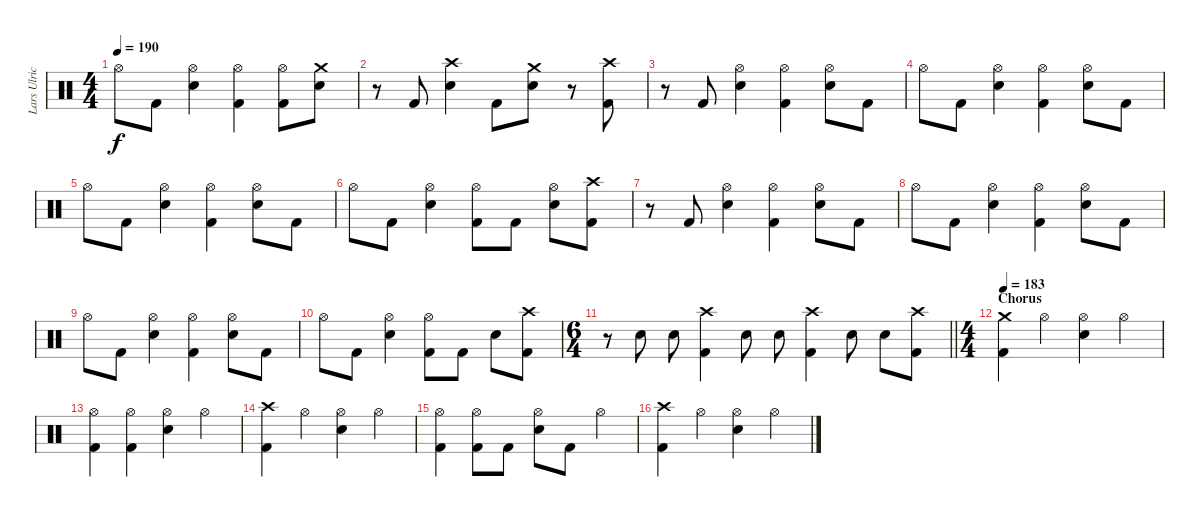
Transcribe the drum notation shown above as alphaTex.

\track ("Lars Ulrich" "Lars Ulric") {instrument percussion}
\staff {score}
\articulation defaults
\ts (4 4)
\tempo 190
\clef neutral
\ks c "Hi-Hat (open)".8{dy f} "Kick (hit) 2".8
("Hi-Hat (open)" "Snare (hit) 2").4 ("Hi-Hat (open)" "Kick (hit) 2").4 ("Hi-Hat (open)" "Kick (hit) 2").8 ("Crash medium (hit)" "Snare (hit) 2").8 |
r.8 "Kick (hit) 2".8 ("Crash high (hit)" "Snare (hit) 2").4 "Kick (hit) 2".8 ("Crash medium (hit)" "Snare (hit) 2").8 r.8 ("Crash high (hit)" "Kick (hit) 2").8 |
r.8 "Kick (hit) 2".8 ("Hi-Hat (open)" "Snare (hit) 2").4 ("Hi-Hat (open)" "Kick (hit) 2").4 ("Hi-Hat (open)" "Snare (hit) 2").8 "Kick (hit) 2".8 |
"Hi-Hat (open)".8 "Kick (hit) 2".8 ("Hi-Hat (open)" "Snare (hit) 2").4 ("Hi-Hat (open)" "Kick (hit) 2").4 ("Hi-Hat (open)" "Snare (hit) 2").8 "Kick (hit) 2".8 |
"Hi-Hat (open)".8 "Kick (hit) 2".8 ("Hi-Hat (open)" "Snare (hit) 2").4 ("Hi-Hat (open)" "Kick (hit) 2").4 ("Hi-Hat (open)" "Snare (hit) 2").8 "Kick (hit) 2".8 |
"Hi-Hat (open)".8 "Kick (hit) 2".8 ("Hi-Hat (open)" "Snare (hit) 2").4 ("Hi-Hat (open)" "Kick (hit) 2").8 "Kick (hit) 2".8 ("Hi-Hat (open)" "Snare (hit) 2").8 ("Crash high (hit)" "Kick (hit) 2").8 |
r.8 "Kick (hit) 2".8 ("Hi-Hat (open)" "Snare (hit) 2").4 ("Hi-Hat (open)" "Kick (hit) 2").4 ("Hi-Hat (open)" "Snare (hit) 2").8 "Kick (hit) 2".8 |
"Hi-Hat (open)".8 "Kick (hit) 2".8 ("Hi-Hat (open)" "Snare (hit) 2").4 ("Hi-Hat (open)" "Kick (hit) 2").4 ("Hi-Hat (open)" "Snare (hit) 2").8 "Kick (hit) 2".8 |
"Hi-Hat (open)".8 "Kick (hit) 2".8 ("Hi-Hat (open)" "Snare (hit) 2").4 ("Hi-Hat (open)" "Kick (hit) 2").4 ("Hi-Hat (open)" "Snare (hit) 2").8 "Kick (hit) 2".8 |
"Hi-Hat (open)".8 "Kick (hit) 2".8 ("Hi-Hat (open)" "Snare (hit) 2").4 ("Hi-Hat (open)" "Kick (hit) 2").8 "Kick (hit) 2".8 "Snare (hit) 2".8 ("Crash high (hit)" "Kick (hit) 2").8 |
\ts (6 4)
\barLineRight lightlight
r.8 "Snare (hit) 2".8 "Snare (hit) 2".8 ("Crash high (hit)" "Kick (hit) 2").4 "Snare (hit) 2".8 "Snare (hit) 2".8 ("Crash high (hit)" "Kick (hit) 2").4 "Snare (hit) 2".8 "Snare (hit) 2".8 ("Crash high (hit)" "Kick (hit) 2").8 |
\ts (4 4)
\section ("" "Chorus")
\tempo 183
("Crash medium (hit)" "Kick (hit) 2").4 "Hi-Hat (open)".4 ("Hi-Hat (open)" "Snare (hit) 2").4 "Hi-Hat (open)".4 |
("Hi-Hat (open)" "Kick (hit) 2").4 ("Hi-Hat (open)" "Kick (hit) 2").4 ("Hi-Hat (open)" "Snare (hit) 2").4 "Hi-Hat (open)".4 |
("Crash high (hit)" "Kick (hit) 2").4 "Hi-Hat (open)".4 ("Hi-Hat (open)" "Snare (hit) 2").4 "Hi-Hat (open)".4 |
("Hi-Hat (open)" "Kick (hit) 2").4 ("Hi-Hat (open)" "Kick (hit) 2").8 "Kick (hit) 2".8 ("Hi-Hat (open)" "Snare (hit) 2").8 "Kick (hit) 2".8 "Hi-Hat (open)".4 |
("Crash high (hit)" "Kick (hit) 2").4 "Hi-Hat (open)".4 ("Hi-Hat (open)" "Snare (hit) 2").4 "Hi-Hat (open)".4
